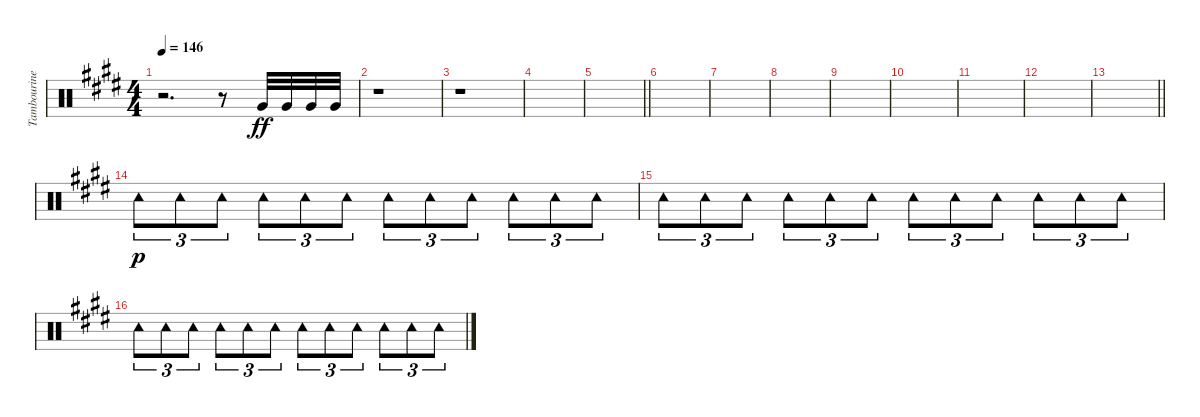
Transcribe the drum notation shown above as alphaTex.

\track ("Tambourine" "Tambourine") {instrument percussion}
\staff {score}
\articulation defaults
\ts (4 4)
\tempo 146
\clef neutral
\ks c#minor
r.2{d dy ff} r.8 "Very Low Tom (hit)".32 "Very Low Tom (hit)".32 "Very Low Tom (hit)".32 "Very Low Tom (hit)".32 |
r.1 |
r.1 |
|
\barLineRight lightlight
|
|
|
|
|
|
|
|
\barLineRight lightlight
|
"Tambourine (hit)".8{tu (3 2) dy p} "Tambourine (hit)".8{tu (3 2)} "Tambourine (hit)".8{tu (3 2)} "Tambourine (hit)".8{tu (3 2)} "Tambourine (hit)".8{tu (3 2)} "Tambourine (hit)".8{tu (3 2)} "Tambourine (hit)".8{tu (3 2)} "Tambourine (hit)".8{tu (3 2)} "Tambourine (hit)".8{tu (3 2)} "Tambourine (hit)".8{tu (3 2)} "Tambourine (hit)".8{tu (3 2)} "Tambourine (hit)".8{tu (3 2)} |
"Tambourine (hit)".8{tu (3 2)} "Tambourine (hit)".8{tu (3 2)} "Tambourine (hit)".8{tu (3 2)} "Tambourine (hit)".8{tu (3 2)} "Tambourine (hit)".8{tu (3 2)} "Tambourine (hit)".8{tu (3 2)} "Tambourine (hit)".8{tu (3 2)} "Tambourine (hit)".8{tu (3 2)} "Tambourine (hit)".8{tu (3 2)} "Tambourine (hit)".8{tu (3 2)} "Tambourine (hit)".8{tu (3 2)} "Tambourine (hit)".8{tu (3 2)} |
"Tambourine (hit)".8{tu (3 2)} "Tambourine (hit)".8{tu (3 2)} "Tambourine (hit)".8{tu (3 2)} "Tambourine (hit)".8{tu (3 2)} "Tambourine (hit)".8{tu (3 2)} "Tambourine (hit)".8{tu (3 2)} "Tambourine (hit)".8{tu (3 2)} "Tambourine (hit)".8{tu (3 2)} "Tambourine (hit)".8{tu (3 2)} "Tambourine (hit)".8{tu (3 2)} "Tambourine (hit)".8{tu (3 2)} "Tambourine (hit)".8{tu (3 2)}
